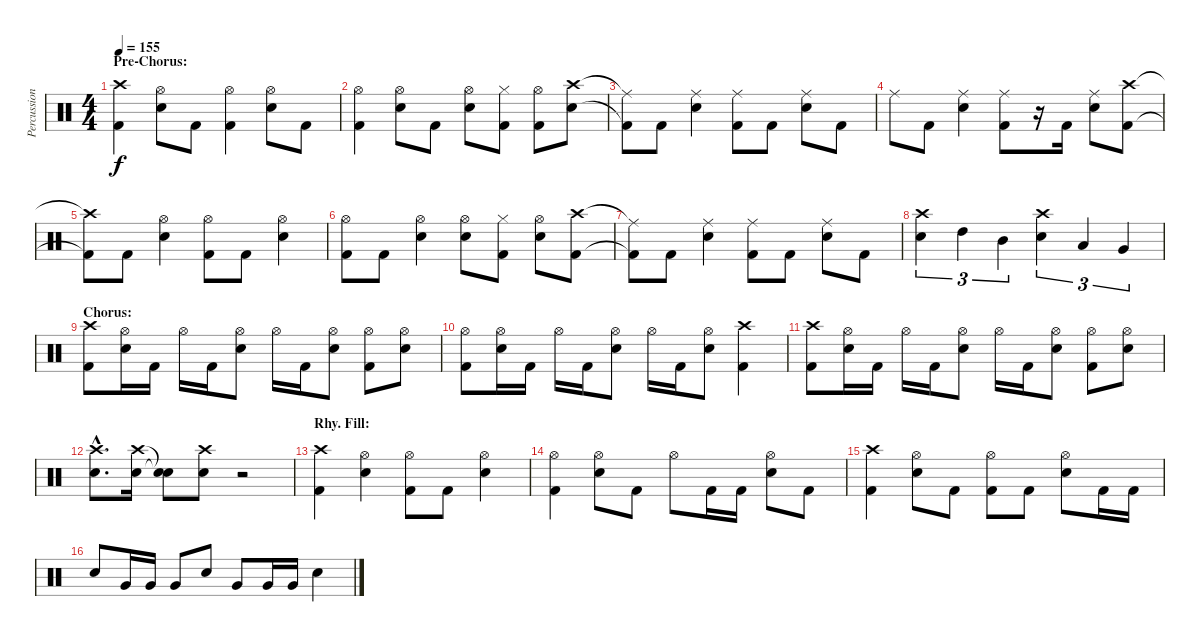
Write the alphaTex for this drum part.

\track ("Percussion" "Percussion") {instrument percussion}
\staff {score}
\articulation defaults
\ts (4 4)
\section ("" "Pre-Chorus:")
\tempo 155
\clef neutral
\ks c
("Crash high (hit)" "Kick (hit) 2").4{dy f} ("Hi-Hat (open)" "Electric Snare (hit)").8 "Kick (hit) 2".8 ("Hi-Hat (open)" "Kick (hit) 2").4 ("Hi-Hat (open)" "Electric Snare (hit)").8 "Kick (hit) 2".8 |
("Hi-Hat (open)" "Kick (hit) 2").4 ("Hi-Hat (open)" "Electric Snare (hit)").8 "Kick (hit) 2".8 ("Hi-Hat (open)" "Electric Snare (hit)").8 ("Hi-Hat (closed)" "Kick (hit) 2").8 ("Hi-Hat (open)" "Kick (hit) 2").8 ("Crash high (hit)" "Electric Snare (hit)").8 |
("Ride (middle)"{t} "Kick (hit) 2"{t}).8 "Kick (hit) 2".8 ("Ride (middle)" "Electric Snare (hit)").4 ("Ride (middle)" "Kick (hit) 2").8 "Kick (hit) 2".8 ("Ride (middle)" "Electric Snare (hit)").8 "Kick (hit) 2".8 |
"Ride (middle)".8 "Kick (hit) 2".8 ("Ride (middle)" "Electric Snare (hit)").4 ("Ride (middle)" "Kick (hit) 2").8 r.16 "Kick (hit) 2".16 ("Ride (middle)" "Electric Snare (hit)").8 ("Crash high (hit)" "Kick (hit) 2").8 |
("Crash high (hit)"{t} "Kick (hit) 2"{t}).8 "Kick (hit) 2".8 ("Hi-Hat (open)" "Electric Snare (hit)").4 ("Hi-Hat (open)" "Kick (hit) 2").8 "Kick (hit) 2".8 ("Hi-Hat (open)" "Electric Snare (hit)").4 |
("Hi-Hat (open)" "Kick (hit) 2").8 "Kick (hit) 2".8 ("Hi-Hat (open)" "Electric Snare (hit)").4 ("Hi-Hat (open)" "Electric Snare (hit)").8 ("Hi-Hat (closed)" "Kick (hit) 2").8 ("Hi-Hat (open)" "Electric Snare (hit)").8 ("Crash high (hit)" "Kick (hit) 2").8 |
("Ride (middle)"{t} "Kick (hit) 2"{t}).8 "Kick (hit) 2".8 ("Ride (middle)" "Electric Snare (hit)").4 ("Ride (middle)" "Kick (hit) 2").8 "Kick (hit) 2".8 ("Ride (middle)" "Electric Snare (hit)").8 "Kick (hit) 2".8 |
("Crash high (hit)" "Electric Snare (hit)").4{tu (3 2)} "High Tom (hit)".4{tu (3 2)} "Mid Tom (hit)".4{tu (3 2)} ("Crash high (hit)" "Electric Snare (hit)").4{tu (3 2)} "Low Tom (hit)".4{tu (3 2)} "Very Low Tom (hit)".4{tu (3 2)} |
\section ("" "Chorus:")
("Crash high (hit)" "Kick (hit) 2").8 ("Hi-Hat (open)" "Electric Snare (hit)").16 "Kick (hit) 2".16 "Hi-Hat (open)".16 "Kick (hit) 2".16 ("Hi-Hat (open)" "Electric Snare (hit)").8 "Hi-Hat (open)".16 "Kick (hit) 2".16 ("Hi-Hat (open)" "Electric Snare (hit)").8 ("Hi-Hat (open)" "Kick (hit) 2").8 ("Hi-Hat (open)" "Electric Snare (hit)").8 |
("Hi-Hat (open)" "Kick (hit) 2").8 ("Hi-Hat (open)" "Electric Snare (hit)").16 "Kick (hit) 2".16 "Hi-Hat (open)".16 "Kick (hit) 2".16 ("Hi-Hat (open)" "Electric Snare (hit)").8 "Hi-Hat (open)".16 "Kick (hit) 2".16 ("Hi-Hat (open)" "Electric Snare (hit)").8 ("Crash high (hit)" "Kick (hit) 2").4 |
("Crash high (hit)" "Kick (hit) 2").8 ("Hi-Hat (open)" "Electric Snare (hit)").16 "Kick (hit) 2".16 "Hi-Hat (open)".16 "Kick (hit) 2".16 ("Hi-Hat (open)" "Electric Snare (hit)").8 "Hi-Hat (open)".16 "Kick (hit) 2".16 ("Hi-Hat (open)" "Electric Snare (hit)").8 ("Hi-Hat (open)" "Kick (hit) 2").8 ("Hi-Hat (open)" "Electric Snare (hit)").8 |
("Crash high (hit)"{hac} "Electric Snare (hit)"{hac}).8{d} ("Crash high (hit)" "Electric Snare (hit)").16 ("Snare (hit)"{t} "Snare (hit)"{t}).8 ("Crash high (hit)" "Electric Snare (hit)").8 r.2 |
\section ("" "Rhy. Fill:")
("Crash high (hit)" "Kick (hit) 2").4 ("Hi-Hat (open)" "Electric Snare (hit)").4 ("Hi-Hat (open)" "Kick (hit) 2").8 "Kick (hit) 2".8 ("Hi-Hat (open)" "Electric Snare (hit)").4 |
("Hi-Hat (open)" "Kick (hit) 2").4 ("Hi-Hat (open)" "Electric Snare (hit)").8 "Kick (hit) 2".8 "Hi-Hat (open)".8 "Kick (hit) 2".16 "Kick (hit) 2".16 ("Hi-Hat (open)" "Electric Snare (hit)").8 "Kick (hit) 2".8 |
("Crash high (hit)" "Kick (hit) 2").4 ("Hi-Hat (open)" "Electric Snare (hit)").8 "Kick (hit) 2".8 ("Hi-Hat (open)" "Kick (hit) 2").8 "Kick (hit) 2".8 ("Hi-Hat (open)" "Electric Snare (hit)").8 "Kick (hit) 2".16 "Kick (hit) 2".16 |
"Electric Snare (hit)".8 "Very Low Tom (hit)".16 "Very Low Tom (hit)".16 "Very Low Tom (hit)".8 "Electric Snare (hit)".8 "Very Low Tom (hit)".8 "Very Low Tom (hit)".16 "Very Low Tom (hit)".16 "Electric Snare (hit)".4
